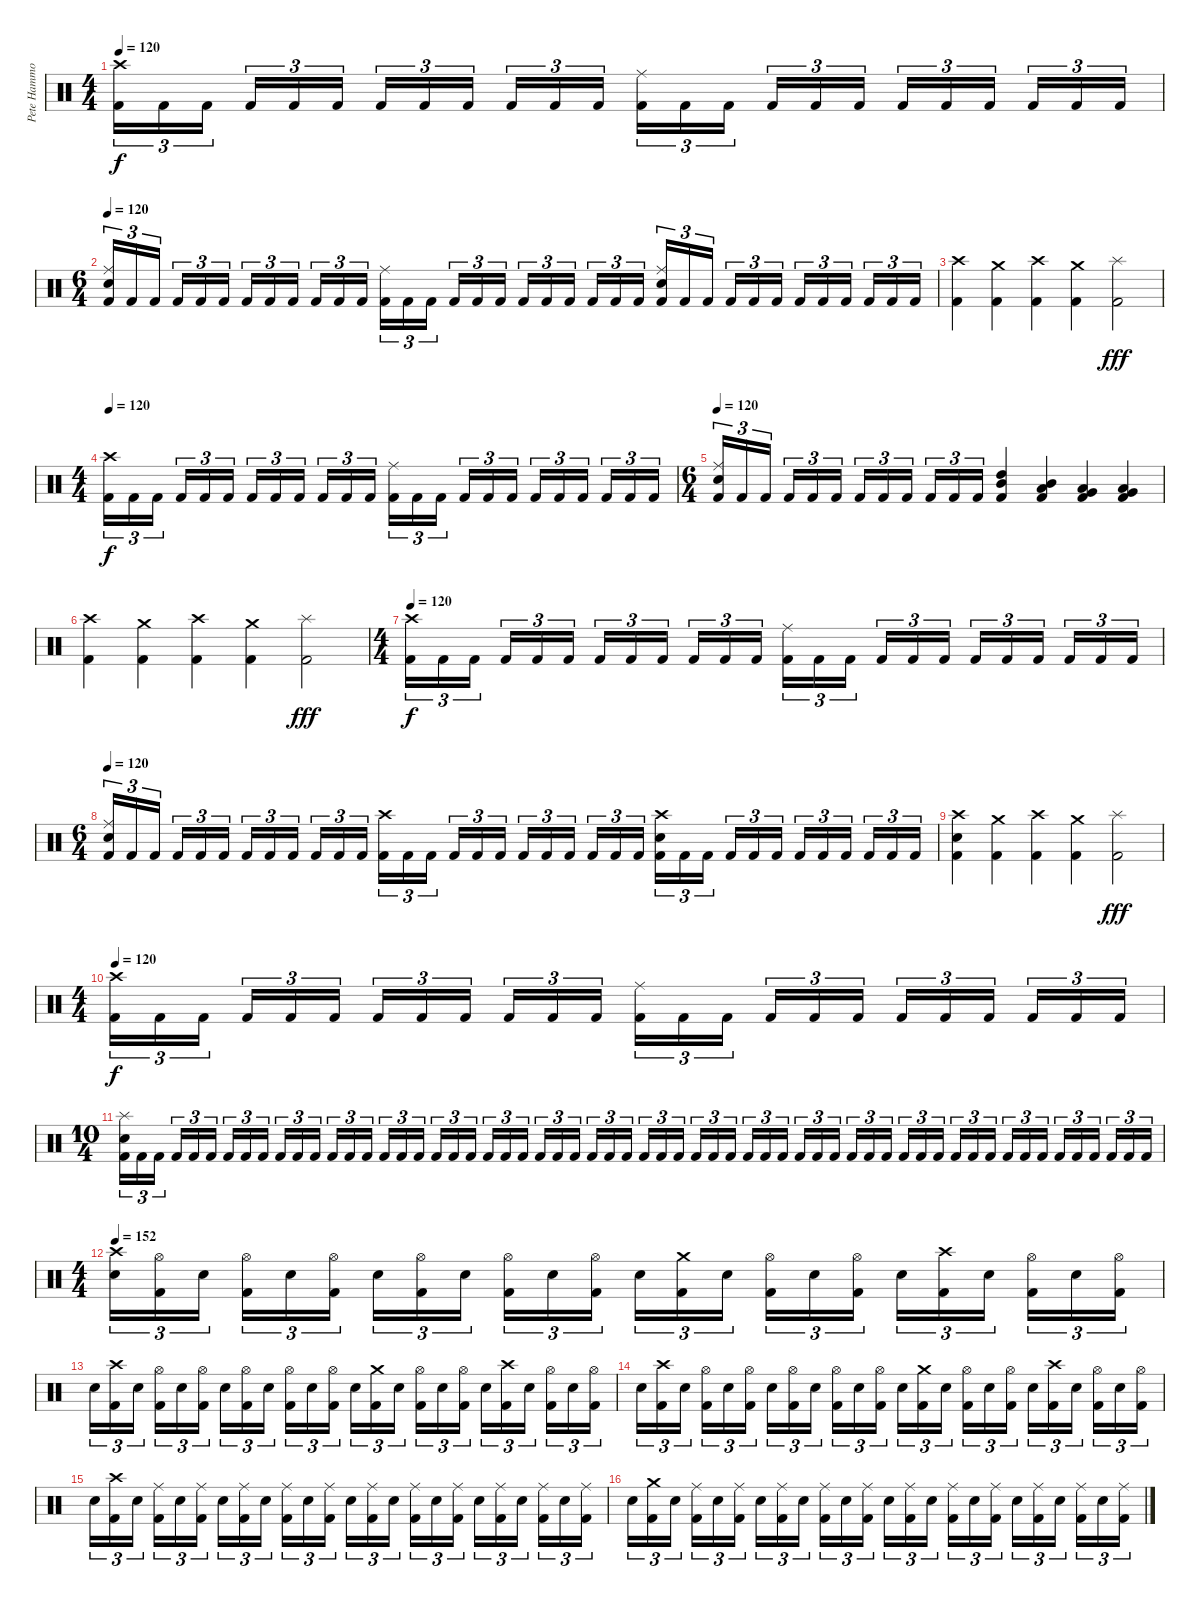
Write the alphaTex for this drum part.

\track ("Pete Hammoura" "Pete Hammo") {instrument percussion}
\staff {score}
\articulation defaults
\ts (4 4)
\tempo 120
\clef neutral
\ks c
("Crash high (hit)" "Kick (hit) 2").16{tu (3 2) dy f} "Kick (hit) 2".16{tu (3 2)} "Kick (hit) 2".16{tu (3 2)} "Kick (hit) 2".16{tu (3 2)} "Kick (hit) 2".16{tu (3 2)} "Kick (hit) 2".16{tu (3 2)} "Kick (hit) 2".16{tu (3 2)} "Kick (hit) 2".16{tu (3 2)} "Kick (hit) 2".16{tu (3 2)} "Kick (hit) 2".16{tu (3 2)} "Kick (hit) 2".16{tu (3 2)} "Kick (hit) 2".16{tu (3 2)} ("Ride (middle)" "Kick (hit) 2").16{tu (3 2)} "Kick (hit) 2".16{tu (3 2)} "Kick (hit) 2".16{tu (3 2)} "Kick (hit) 2".16{tu (3 2)} "Kick (hit) 2".16{tu (3 2)} "Kick (hit) 2".16{tu (3 2)} "Kick (hit) 2".16{tu (3 2)} "Kick (hit) 2".16{tu (3 2)} "Kick (hit) 2".16{tu (3 2)} "Kick (hit) 2".16{tu (3 2)} "Kick (hit) 2".16{tu (3 2)} "Kick (hit) 2".16{tu (3 2)} |
\ts (6 4)
\tempo 120
("Ride (middle)" "Electric Snare (hit)" "Kick (hit) 2").16{tu (3 2)} "Kick (hit) 2".16{tu (3 2)} "Kick (hit) 2".16{tu (3 2)} "Kick (hit) 2".16{tu (3 2)} "Kick (hit) 2".16{tu (3 2)} "Kick (hit) 2".16{tu (3 2)} "Kick (hit) 2".16{tu (3 2)} "Kick (hit) 2".16{tu (3 2)} "Kick (hit) 2".16{tu (3 2)} "Kick (hit) 2".16{tu (3 2)} "Kick (hit) 2".16{tu (3 2)} "Kick (hit) 2".16{tu (3 2)} ("Ride (middle)" "Kick (hit) 2").16{tu (3 2)} "Kick (hit) 2".16{tu (3 2)} "Kick (hit) 2".16{tu (3 2)} "Kick (hit) 2".16{tu (3 2)} "Kick (hit) 2".16{tu (3 2)} "Kick (hit) 2".16{tu (3 2)} "Kick (hit) 2".16{tu (3 2)} "Kick (hit) 2".16{tu (3 2)} "Kick (hit) 2".16{tu (3 2)} "Kick (hit) 2".16{tu (3 2)} "Kick (hit) 2".16{tu (3 2)} "Kick (hit) 2".16{tu (3 2)} ("Ride (middle)" "Electric Snare (hit)" "Kick (hit) 2").16{tu (3 2)} "Kick (hit) 2".16{tu (3 2)} "Kick (hit) 2".16{tu (3 2)} "Kick (hit) 2".16{tu (3 2)} "Kick (hit) 2".16{tu (3 2)} "Kick (hit) 2".16{tu (3 2)} "Kick (hit) 2".16{tu (3 2)} "Kick (hit) 2".16{tu (3 2)} "Kick (hit) 2".16{tu (3 2)} "Kick (hit) 2".16{tu (3 2)} "Kick (hit) 2".16{tu (3 2)} "Kick (hit) 2".16{tu (3 2)} |
("Crash high (hit)" "Kick (hit) 2").4 ("Crash medium (hit)" "Kick (hit) 2").4 ("Crash high (hit)" "Kick (hit) 2").4 ("Crash medium (hit)" "Kick (hit) 2").4 ("Splash (hit)" "Kick (hit) 2").2{dy fff} |
\ts (4 4)
\tempo 120
("Crash high (hit)" "Kick (hit) 2").16{tu (3 2) dy f} "Kick (hit) 2".16{tu (3 2)} "Kick (hit) 2".16{tu (3 2)} "Kick (hit) 2".16{tu (3 2)} "Kick (hit) 2".16{tu (3 2)} "Kick (hit) 2".16{tu (3 2)} "Kick (hit) 2".16{tu (3 2)} "Kick (hit) 2".16{tu (3 2)} "Kick (hit) 2".16{tu (3 2)} "Kick (hit) 2".16{tu (3 2)} "Kick (hit) 2".16{tu (3 2)} "Kick (hit) 2".16{tu (3 2)} ("Ride (middle)" "Kick (hit) 2").16{tu (3 2)} "Kick (hit) 2".16{tu (3 2)} "Kick (hit) 2".16{tu (3 2)} "Kick (hit) 2".16{tu (3 2)} "Kick (hit) 2".16{tu (3 2)} "Kick (hit) 2".16{tu (3 2)} "Kick (hit) 2".16{tu (3 2)} "Kick (hit) 2".16{tu (3 2)} "Kick (hit) 2".16{tu (3 2)} "Kick (hit) 2".16{tu (3 2)} "Kick (hit) 2".16{tu (3 2)} "Kick (hit) 2".16{tu (3 2)} |
\ts (6 4)
\tempo 120
("Ride (middle)" "Electric Snare (hit)" "Kick (hit) 2").16{tu (3 2)} "Kick (hit) 2".16{tu (3 2)} "Kick (hit) 2".16{tu (3 2)} "Kick (hit) 2".16{tu (3 2)} "Kick (hit) 2".16{tu (3 2)} "Kick (hit) 2".16{tu (3 2)} "Kick (hit) 2".16{tu (3 2)} "Kick (hit) 2".16{tu (3 2)} "Kick (hit) 2".16{tu (3 2)} "Kick (hit) 2".16{tu (3 2)} "Kick (hit) 2".16{tu (3 2)} "Kick (hit) 2".16{tu (3 2)} ("High Tom (hit)" "Mid Tom (hit)" "Kick (hit) 2").4 ("Mid Tom (hit)" "Low Tom (hit)" "Kick (hit) 2").4 ("Low Tom (hit)" "Very Low Tom (hit)" "Kick (hit) 2").4 ("Very Low Tom (hit)" "Low Floor Tom (hit)" "Kick (hit) 2").4 |
("Crash high (hit)" "Kick (hit) 2").4 ("Crash medium (hit)" "Kick (hit) 2").4 ("Crash high (hit)" "Kick (hit) 2").4 ("Crash medium (hit)" "Kick (hit) 2").4 ("Splash (hit)" "Kick (hit) 2").2{dy fff} |
\ts (4 4)
\tempo 120
("Crash high (hit)" "Kick (hit) 2").16{tu (3 2) dy f} "Kick (hit) 2".16{tu (3 2)} "Kick (hit) 2".16{tu (3 2)} "Kick (hit) 2".16{tu (3 2)} "Kick (hit) 2".16{tu (3 2)} "Kick (hit) 2".16{tu (3 2)} "Kick (hit) 2".16{tu (3 2)} "Kick (hit) 2".16{tu (3 2)} "Kick (hit) 2".16{tu (3 2)} "Kick (hit) 2".16{tu (3 2)} "Kick (hit) 2".16{tu (3 2)} "Kick (hit) 2".16{tu (3 2)} ("Ride (middle)" "Kick (hit) 2").16{tu (3 2)} "Kick (hit) 2".16{tu (3 2)} "Kick (hit) 2".16{tu (3 2)} "Kick (hit) 2".16{tu (3 2)} "Kick (hit) 2".16{tu (3 2)} "Kick (hit) 2".16{tu (3 2)} "Kick (hit) 2".16{tu (3 2)} "Kick (hit) 2".16{tu (3 2)} "Kick (hit) 2".16{tu (3 2)} "Kick (hit) 2".16{tu (3 2)} "Kick (hit) 2".16{tu (3 2)} "Kick (hit) 2".16{tu (3 2)} |
\ts (6 4)
\tempo 120
("Ride (middle)" "Electric Snare (hit)" "Kick (hit) 2").16{tu (3 2)} "Kick (hit) 2".16{tu (3 2)} "Kick (hit) 2".16{tu (3 2)} "Kick (hit) 2".16{tu (3 2)} "Kick (hit) 2".16{tu (3 2)} "Kick (hit) 2".16{tu (3 2)} "Kick (hit) 2".16{tu (3 2)} "Kick (hit) 2".16{tu (3 2)} "Kick (hit) 2".16{tu (3 2)} "Kick (hit) 2".16{tu (3 2)} "Kick (hit) 2".16{tu (3 2)} "Kick (hit) 2".16{tu (3 2)} ("Crash high (hit)" "Kick (hit) 2").16{tu (3 2)} "Kick (hit) 2".16{tu (3 2)} "Kick (hit) 2".16{tu (3 2)} "Kick (hit) 2".16{tu (3 2)} "Kick (hit) 2".16{tu (3 2)} "Kick (hit) 2".16{tu (3 2)} "Kick (hit) 2".16{tu (3 2)} "Kick (hit) 2".16{tu (3 2)} "Kick (hit) 2".16{tu (3 2)} "Kick (hit) 2".16{tu (3 2)} "Kick (hit) 2".16{tu (3 2)} "Kick (hit) 2".16{tu (3 2)} ("Crash high (hit)" "Electric Snare (hit)" "Kick (hit) 2").16{tu (3 2)} "Kick (hit) 2".16{tu (3 2)} "Kick (hit) 2".16{tu (3 2)} "Kick (hit) 2".16{tu (3 2)} "Kick (hit) 2".16{tu (3 2)} "Kick (hit) 2".16{tu (3 2)} "Kick (hit) 2".16{tu (3 2)} "Kick (hit) 2".16{tu (3 2)} "Kick (hit) 2".16{tu (3 2)} "Kick (hit) 2".16{tu (3 2)} "Kick (hit) 2".16{tu (3 2)} "Kick (hit) 2".16{tu (3 2)} |
("Crash high (hit)" "Electric Snare (hit)" "Kick (hit) 2").4 ("Crash medium (hit)" "Kick (hit) 2").4 ("Crash high (hit)" "Kick (hit) 2").4 ("Crash medium (hit)" "Kick (hit) 2").4 ("Splash (hit)" "Kick (hit) 2").2{dy fff} |
\ts (4 4)
\tempo 120
("Crash high (hit)" "Kick (hit) 2").16{tu (3 2) dy f} "Kick (hit) 2".16{tu (3 2)} "Kick (hit) 2".16{tu (3 2)} "Kick (hit) 2".16{tu (3 2)} "Kick (hit) 2".16{tu (3 2)} "Kick (hit) 2".16{tu (3 2)} "Kick (hit) 2".16{tu (3 2)} "Kick (hit) 2".16{tu (3 2)} "Kick (hit) 2".16{tu (3 2)} "Kick (hit) 2".16{tu (3 2)} "Kick (hit) 2".16{tu (3 2)} "Kick (hit) 2".16{tu (3 2)} ("Ride (middle)" "Kick (hit) 2").16{tu (3 2)} "Kick (hit) 2".16{tu (3 2)} "Kick (hit) 2".16{tu (3 2)} "Kick (hit) 2".16{tu (3 2)} "Kick (hit) 2".16{tu (3 2)} "Kick (hit) 2".16{tu (3 2)} "Kick (hit) 2".16{tu (3 2)} "Kick (hit) 2".16{tu (3 2)} "Kick (hit) 2".16{tu (3 2)} "Kick (hit) 2".16{tu (3 2)} "Kick (hit) 2".16{tu (3 2)} "Kick (hit) 2".16{tu (3 2)} |
\ts (10 4)
("Splash (hit)" "Electric Snare (hit)" "Kick (hit) 2").16{tu (3 2)} "Kick (hit) 2".16{tu (3 2)} "Kick (hit) 2".16{tu (3 2)} "Kick (hit) 2".16{tu (3 2)} "Kick (hit) 2".16{tu (3 2)} "Kick (hit) 2".16{tu (3 2)} "Kick (hit) 2".16{tu (3 2)} "Kick (hit) 2".16{tu (3 2)} "Kick (hit) 2".16{tu (3 2)} "Kick (hit) 2".16{tu (3 2)} "Kick (hit) 2".16{tu (3 2)} "Kick (hit) 2".16{tu (3 2)} "Kick (hit) 2".16{tu (3 2)} "Kick (hit) 2".16{tu (3 2)} "Kick (hit) 2".16{tu (3 2)} "Kick (hit) 2".16{tu (3 2)} "Kick (hit) 2".16{tu (3 2)} "Kick (hit) 2".16{tu (3 2)} "Kick (hit) 2".16{tu (3 2)} "Kick (hit) 2".16{tu (3 2)} "Kick (hit) 2".16{tu (3 2)} "Kick (hit) 2".16{tu (3 2)} "Kick (hit) 2".16{tu (3 2)} "Kick (hit) 2".16{tu (3 2)} "Kick (hit) 2".16{tu (3 2)} "Kick (hit) 2".16{tu (3 2)} "Kick (hit) 2".16{tu (3 2)} "Kick (hit) 2".16{tu (3 2)} "Kick (hit) 2".16{tu (3 2)} "Kick (hit) 2".16{tu (3 2)} "Kick (hit) 2".16{tu (3 2)} "Kick (hit) 2".16{tu (3 2)} "Kick (hit) 2".16{tu (3 2)} "Kick (hit) 2".16{tu (3 2)} "Kick (hit) 2".16{tu (3 2)} "Kick (hit) 2".16{tu (3 2)} "Kick (hit) 2".16{tu (3 2)} "Kick (hit) 2".16{tu (3 2)} "Kick (hit) 2".16{tu (3 2)} "Kick (hit) 2".16{tu (3 2)} "Kick (hit) 2".16{tu (3 2)} "Kick (hit) 2".16{tu (3 2)} "Kick (hit) 2".16{tu (3 2)} "Kick (hit) 2".16{tu (3 2)} "Kick (hit) 2".16{tu (3 2)} "Kick (hit) 2".16{tu (3 2)} "Kick (hit) 2".16{tu (3 2)} "Kick (hit) 2".16{tu (3 2)} "Kick (hit) 2".16{tu (3 2)} "Kick (hit) 2".16{tu (3 2)} "Kick (hit) 2".16{tu (3 2)} "Kick (hit) 2".16{tu (3 2)} "Kick (hit) 2".16{tu (3 2)} "Kick (hit) 2".16{tu (3 2)} "Kick (hit) 2".16{tu (3 2)} "Kick (hit) 2".16{tu (3 2)} "Kick (hit) 2".16{tu (3 2)} "Kick (hit) 2".16{tu (3 2)} "Kick (hit) 2".16{tu (3 2)} "Kick (hit) 2".16{tu (3 2)} |
\ts (4 4)
\tempo 152
("Crash high (hit)" "Electric Snare (hit)").16{tu (3 2)} ("Hi-Hat (open)" "Kick (hit) 2").16{tu (3 2)} "Electric Snare (hit)".16{tu (3 2)} ("Hi-Hat (open)" "Kick (hit) 2").16{tu (3 2)} "Electric Snare (hit)".16{tu (3 2)} ("Hi-Hat (open)" "Kick (hit) 2").16{tu (3 2)} "Electric Snare (hit)".16{tu (3 2)} ("Hi-Hat (open)" "Kick (hit) 2").16{tu (3 2)} "Electric Snare (hit)".16{tu (3 2)} ("Hi-Hat (open)" "Kick (hit) 2").16{tu (3 2)} "Electric Snare (hit)".16{tu (3 2)} ("Hi-Hat (open)" "Kick (hit) 2").16{tu (3 2)} "Electric Snare (hit)".16{tu (3 2)} ("Crash medium (hit)" "Kick (hit) 2").16{tu (3 2)} "Electric Snare (hit)".16{tu (3 2)} ("Hi-Hat (open)" "Kick (hit) 2").16{tu (3 2)} "Electric Snare (hit)".16{tu (3 2)} ("Hi-Hat (open)" "Kick (hit) 2").16{tu (3 2)} "Electric Snare (hit)".16{tu (3 2)} ("Crash high (hit)" "Kick (hit) 2").16{tu (3 2)} "Electric Snare (hit)".16{tu (3 2)} ("Hi-Hat (open)" "Kick (hit) 2").16{tu (3 2)} "Electric Snare (hit)".16{tu (3 2)} ("Hi-Hat (open)" "Kick (hit) 2").16{tu (3 2)} |
"Electric Snare (hit)".16{tu (3 2)} ("Crash high (hit)" "Kick (hit) 2").16{tu (3 2)} "Electric Snare (hit)".16{tu (3 2)} ("Hi-Hat (open)" "Kick (hit) 2").16{tu (3 2)} "Electric Snare (hit)".16{tu (3 2)} ("Hi-Hat (open)" "Kick (hit) 2").16{tu (3 2)} "Electric Snare (hit)".16{tu (3 2)} ("Hi-Hat (open)" "Kick (hit) 2").16{tu (3 2)} "Electric Snare (hit)".16{tu (3 2)} ("Hi-Hat (open)" "Kick (hit) 2").16{tu (3 2)} "Electric Snare (hit)".16{tu (3 2)} ("Hi-Hat (open)" "Kick (hit) 2").16{tu (3 2)} "Electric Snare (hit)".16{tu (3 2)} ("Crash medium (hit)" "Kick (hit) 2").16{tu (3 2)} "Electric Snare (hit)".16{tu (3 2)} ("Hi-Hat (open)" "Kick (hit) 2").16{tu (3 2)} "Electric Snare (hit)".16{tu (3 2)} ("Hi-Hat (open)" "Kick (hit) 2").16{tu (3 2)} "Electric Snare (hit)".16{tu (3 2)} ("Crash high (hit)" "Kick (hit) 2").16{tu (3 2)} "Electric Snare (hit)".16{tu (3 2)} ("Hi-Hat (open)" "Kick (hit) 2").16{tu (3 2)} "Electric Snare (hit)".16{tu (3 2)} ("Hi-Hat (open)" "Kick (hit) 2").16{tu (3 2)} |
"Electric Snare (hit)".16{tu (3 2)} ("Crash high (hit)" "Kick (hit) 2").16{tu (3 2)} "Electric Snare (hit)".16{tu (3 2)} ("Hi-Hat (open)" "Kick (hit) 2").16{tu (3 2)} "Electric Snare (hit)".16{tu (3 2)} ("Hi-Hat (open)" "Kick (hit) 2").16{tu (3 2)} "Electric Snare (hit)".16{tu (3 2)} ("Hi-Hat (open)" "Kick (hit) 2").16{tu (3 2)} "Electric Snare (hit)".16{tu (3 2)} ("Hi-Hat (open)" "Kick (hit) 2").16{tu (3 2)} "Electric Snare (hit)".16{tu (3 2)} ("Hi-Hat (open)" "Kick (hit) 2").16{tu (3 2)} "Electric Snare (hit)".16{tu (3 2)} ("Crash medium (hit)" "Kick (hit) 2").16{tu (3 2)} "Electric Snare (hit)".16{tu (3 2)} ("Hi-Hat (open)" "Kick (hit) 2").16{tu (3 2)} "Electric Snare (hit)".16{tu (3 2)} ("Hi-Hat (open)" "Kick (hit) 2").16{tu (3 2)} "Electric Snare (hit)".16{tu (3 2)} ("Crash high (hit)" "Kick (hit) 2").16{tu (3 2)} "Electric Snare (hit)".16{tu (3 2)} ("Hi-Hat (open)" "Kick (hit) 2").16{tu (3 2)} "Electric Snare (hit)".16{tu (3 2)} ("Hi-Hat (open)" "Kick (hit) 2").16{tu (3 2)} |
"Electric Snare (hit)".16{tu (3 2)} ("Crash high (hit)" "Kick (hit) 2").16{tu (3 2)} "Electric Snare (hit)".16{tu (3 2)} ("Ride (middle)" "Kick (hit) 2").16{tu (3 2)} "Electric Snare (hit)".16{tu (3 2)} ("Ride (middle)" "Kick (hit) 2").16{tu (3 2)} "Electric Snare (hit)".16{tu (3 2)} ("Ride (middle)" "Kick (hit) 2").16{tu (3 2)} "Electric Snare (hit)".16{tu (3 2)} ("Ride (middle)" "Kick (hit) 2").16{tu (3 2)} "Electric Snare (hit)".16{tu (3 2)} ("Ride (middle)" "Kick (hit) 2").16{tu (3 2)} "Electric Snare (hit)".16{tu (3 2)} ("Ride (middle)" "Kick (hit) 2").16{tu (3 2)} "Electric Snare (hit)".16{tu (3 2)} ("Ride (middle)" "Kick (hit) 2").16{tu (3 2)} "Electric Snare (hit)".16{tu (3 2)} ("Ride (middle)" "Kick (hit) 2").16{tu (3 2)} "Electric Snare (hit)".16{tu (3 2)} ("Ride (middle)" "Kick (hit) 2").16{tu (3 2)} "Electric Snare (hit)".16{tu (3 2)} ("Ride (middle)" "Kick (hit) 2").16{tu (3 2)} "Electric Snare (hit)".16{tu (3 2)} ("Ride (middle)" "Kick (hit) 2").16{tu (3 2)} |
"Electric Snare (hit)".16{tu (3 2)} ("Crash medium (hit)" "Kick (hit) 2").16{tu (3 2)} "Electric Snare (hit)".16{tu (3 2)} ("Ride (middle)" "Kick (hit) 2").16{tu (3 2)} "Electric Snare (hit)".16{tu (3 2)} ("Ride (middle)" "Kick (hit) 2").16{tu (3 2)} "Electric Snare (hit)".16{tu (3 2)} ("Ride (middle)" "Kick (hit) 2").16{tu (3 2)} "Electric Snare (hit)".16{tu (3 2)} ("Ride (middle)" "Kick (hit) 2").16{tu (3 2)} "Electric Snare (hit)".16{tu (3 2)} ("Ride (middle)" "Kick (hit) 2").16{tu (3 2)} "Electric Snare (hit)".16{tu (3 2)} ("Ride (middle)" "Kick (hit) 2").16{tu (3 2)} "Electric Snare (hit)".16{tu (3 2)} ("Ride (middle)" "Kick (hit) 2").16{tu (3 2)} "Electric Snare (hit)".16{tu (3 2)} ("Ride (middle)" "Kick (hit) 2").16{tu (3 2)} "Electric Snare (hit)".16{tu (3 2)} ("Ride (middle)" "Kick (hit) 2").16{tu (3 2)} "Electric Snare (hit)".16{tu (3 2)} ("Ride (middle)" "Kick (hit) 2").16{tu (3 2)} "Electric Snare (hit)".16{tu (3 2)} ("Ride (middle)" "Kick (hit) 2").16{tu (3 2)}
